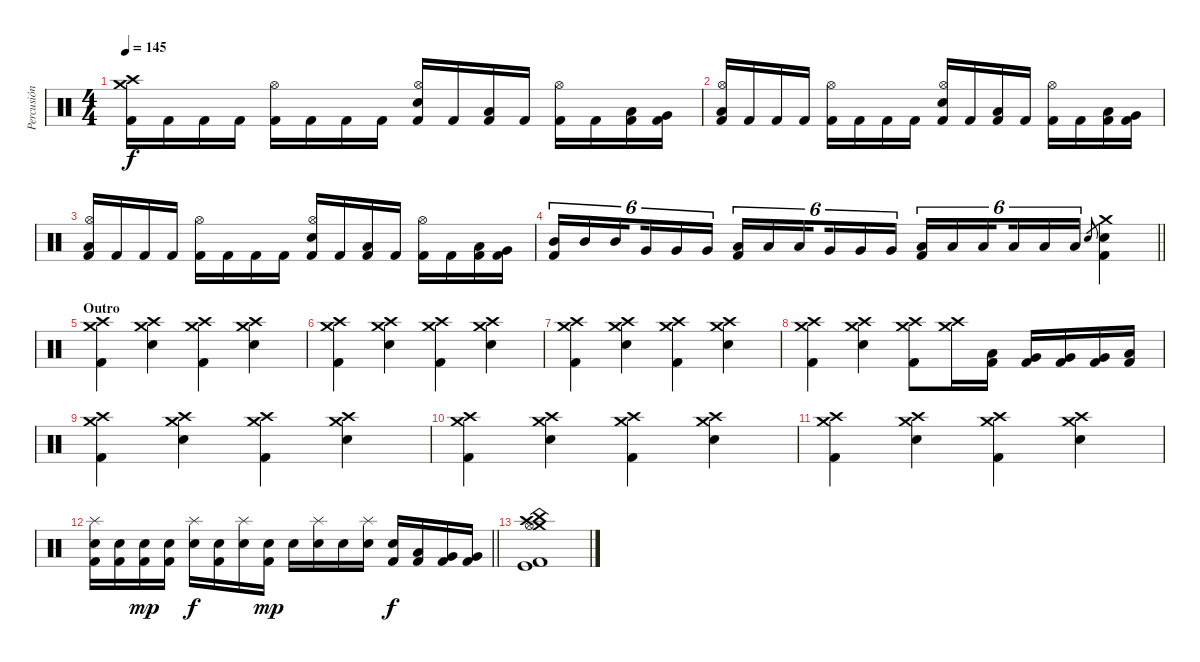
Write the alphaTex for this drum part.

\track ("Percusión" "Percusión") {instrument percussion}
\staff {score}
\articulation defaults
\ts (4 4)
\tempo 145
\clef neutral
\ks c
("Crash medium (hit)" "Crash high (hit)" "Kick (hit) 2").16{dy f} "Kick (hit) 2".16 "Kick (hit) 2".16 "Kick (hit) 2".16 ("Hi-Hat (open)" "Kick (hit) 2").16 "Kick (hit) 2".16 "Kick (hit) 2".16 "Kick (hit) 2".16 ("Hi-Hat (open)" "Electric Snare (hit)" "Kick (hit) 2").16 "Kick (hit) 2".16 ("Low Tom (hit)" "Kick (hit) 2").16 "Kick (hit) 2".16 ("Hi-Hat (open)" "Kick (hit) 2").16 "Kick (hit) 2".16 ("Low Tom (hit)" "Kick (hit) 2").16 ("Very Low Tom (hit)" "Kick (hit) 2").16 |
("Hi-Hat (open)" "Low Floor Tom (hit)" "Kick (hit) 2").16 "Kick (hit) 2".16 "Kick (hit) 2".16 "Kick (hit) 2".16 ("Hi-Hat (open)" "Kick (hit) 2").16 "Kick (hit) 2".16 "Kick (hit) 2".16 "Kick (hit) 2".16 ("Hi-Hat (open)" "Electric Snare (hit)" "Kick (hit) 2").16 "Kick (hit) 2".16 ("Low Tom (hit)" "Kick (hit) 2").16 "Kick (hit) 2".16 ("Hi-Hat (open)" "Kick (hit) 2").16 "Kick (hit) 2".16 ("Low Tom (hit)" "Kick (hit) 2").16 ("Very Low Tom (hit)" "Kick (hit) 2").16 |
("Hi-Hat (open)" "Low Floor Tom (hit)" "Kick (hit) 2").16 "Kick (hit) 2".16 "Kick (hit) 2".16 "Kick (hit) 2".16 ("Hi-Hat (open)" "Kick (hit) 2").16 "Kick (hit) 2".16 "Kick (hit) 2".16 "Kick (hit) 2".16 ("Hi-Hat (open)" "Electric Snare (hit)" "Kick (hit) 2").16 "Kick (hit) 2".16 ("Low Tom (hit)" "Kick (hit) 2").16 "Kick (hit) 2".16 ("Hi-Hat (open)" "Kick (hit) 2").16 "Kick (hit) 2".16 ("Low Tom (hit)" "Kick (hit) 2").16 ("Very Low Tom (hit)" "Kick (hit) 2").16 |
\barLineRight lightlight
("Mid Tom (hit)" "Kick (hit) 2").16{tu (6 4)} "Mid Tom (hit)".16{tu (6 4)} "Mid Tom (hit)".16{tu (6 4) beam splitsecondary} "Very Low Tom (hit)".16{tu (6 4)} "Very Low Tom (hit)".16{tu (6 4)} "Very Low Tom (hit)".16{tu (6 4)} ("Low Tom (hit)" "Kick (hit) 2").16{tu (6 4)} "Low Tom (hit)".16{tu (6 4)} "Low Tom (hit)".16{tu (6 4) beam splitsecondary} "Very Low Tom (hit)".16{tu (6 4)} "Very Low Tom (hit)".16{tu (6 4)} "Very Low Tom (hit)".16{tu (6 4)} ("Low Tom (hit)" "Kick (hit) 2").16{tu (6 4)} "Low Tom (hit)".16{tu (6 4)} "Low Tom (hit)".16{tu (6 4) beam splitsecondary} "Low Floor Tom (hit)".16{tu (6 4)} "Low Floor Tom (hit)".16{tu (6 4)} "Low Floor Tom (hit)".16{tu (6 4)} "Electric Snare (hit)".8{gr} ("Crash medium (hit)" "Electric Snare (hit)" "Kick (hit) 2").4 |
\section ("" "Outro")
("Crash medium (hit)" "Crash high (hit)" "Kick (hit) 2").4 ("Crash medium (hit)" "Crash high (hit)" "Electric Snare (hit)").4 ("Crash medium (hit)" "Crash high (hit)" "Kick (hit) 2").4 ("Crash medium (hit)" "Crash high (hit)" "Electric Snare (hit)").4 |
("Crash medium (hit)" "Crash high (hit)" "Kick (hit) 2").4 ("Crash medium (hit)" "Crash high (hit)" "Electric Snare (hit)").4 ("Crash medium (hit)" "Crash high (hit)" "Kick (hit) 2").4 ("Crash medium (hit)" "Crash high (hit)" "Electric Snare (hit)").4 |
("Crash medium (hit)" "Crash high (hit)" "Kick (hit) 2").4 ("Crash medium (hit)" "Crash high (hit)" "Electric Snare (hit)").4 ("Crash medium (hit)" "Crash high (hit)" "Kick (hit) 2").4 ("Crash medium (hit)" "Crash high (hit)" "Electric Snare (hit)").4 |
("Crash medium (hit)" "Crash high (hit)" "Kick (hit) 2").4 ("Crash medium (hit)" "Crash high (hit)" "Electric Snare (hit)").4 ("Crash medium (hit)" "Crash high (hit)" "Kick (hit) 2").8 ("Crash medium (hit)" "Crash high (hit)").16 ("Low Tom (hit)" "Kick (hit) 2").16 ("Very Low Tom (hit)" "Kick (hit) 2").16 ("Very Low Tom (hit)" "Kick (hit) 2").16 ("Very Low Tom (hit)" "Kick (hit) 2").16 ("Low Floor Tom (hit)" "Kick (hit) 2").16 |
("Crash medium (hit)" "Crash high (hit)" "Kick (hit) 2").4 ("Crash medium (hit)" "Crash high (hit)" "Electric Snare (hit)").4 ("Crash medium (hit)" "Crash high (hit)" "Kick (hit) 2").4 ("Crash medium (hit)" "Crash high (hit)" "Electric Snare (hit)").4 |
("Crash medium (hit)" "Crash high (hit)" "Kick (hit) 2").4 ("Crash medium (hit)" "Crash high (hit)" "Electric Snare (hit)").4 ("Crash medium (hit)" "Crash high (hit)" "Kick (hit) 2").4 ("Crash medium (hit)" "Crash high (hit)" "Electric Snare (hit)").4 |
("Crash medium (hit)" "Crash high (hit)" "Kick (hit) 2").4 ("Crash medium (hit)" "Crash high (hit)" "Electric Snare (hit)").4 ("Crash medium (hit)" "Crash high (hit)" "Kick (hit) 2").4 ("Crash medium (hit)" "Crash high (hit)" "Electric Snare (hit)").4 |
\barLineRight lightlight
("Splash (hit)" "Electric Snare (hit)" "Kick (hit) 2").16 ("Electric Snare (hit)" "Kick (hit) 2").16 ("Electric Snare (hit)" "Kick (hit) 2").16{dy mp} ("Electric Snare (hit)" "Kick (hit) 2").16 ("Splash (hit)" "Electric Snare (hit)").16{dy f} ("Electric Snare (hit)" "Kick (hit) 2").16 ("Splash (hit)" "Electric Snare (hit)").16 ("Electric Snare (hit)" "Kick (hit) 2").16{dy mp} "Electric Snare (hit)".16 ("Splash (hit)" "Electric Snare (hit)").16 "Electric Snare (hit)".16 ("Splash (hit)" "Electric Snare (hit)").16 ("Electric Snare (hit)" "Kick (hit) 2").16{dy f} ("Low Tom (hit)" "Kick (hit) 2").16 ("Very Low Tom (hit)" "Kick (hit) 2").16 ("Very Low Tom (hit)" "Kick (hit) 2").16 |
("Crash medium (hit)" "Crash high (hit)" "China (hit)" "Hi-Hat (open)" "Kick (hit) 2" "Kick (hit)").1
